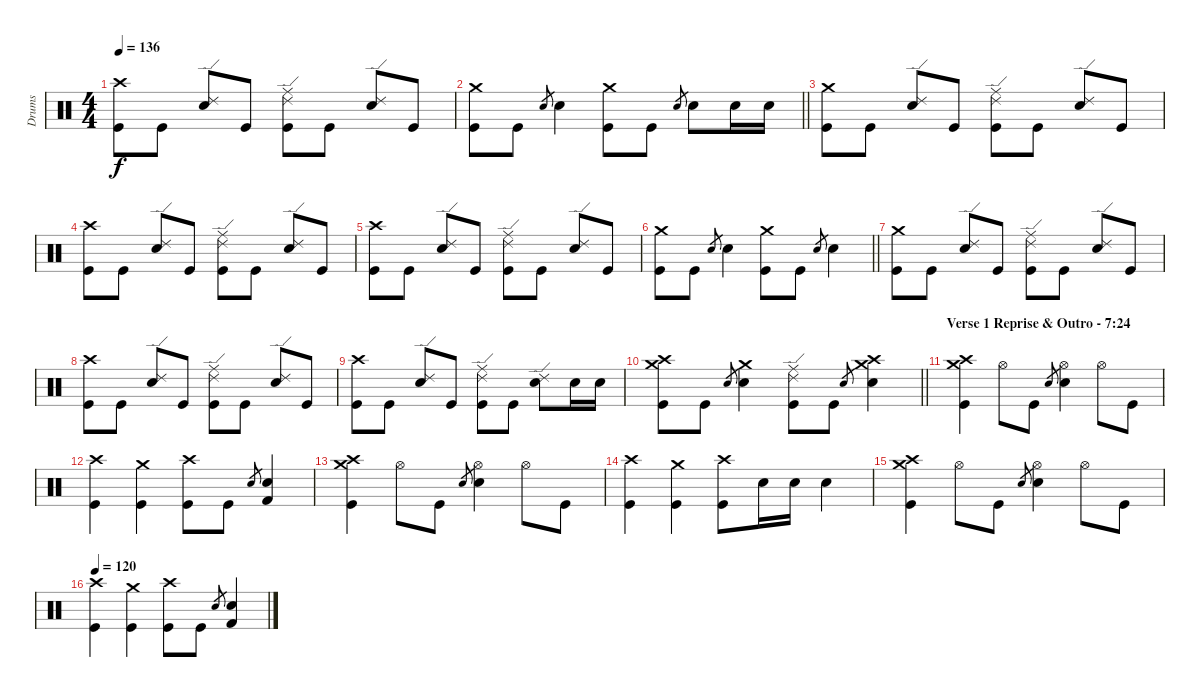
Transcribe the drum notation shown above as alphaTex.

\track ("Drums" "Drums") {instrument percussion}
\staff {score}
\articulation defaults
\ts (4 4)
\tempo 136
\clef neutral
\ks c
("Crash high (hit)" "Kick (hit)").8{dy f} "Kick (hit)".8 ("Ride (edge) 2" "Snare (hit) 2").8 "Kick (hit)".8 ("Ride (edge) 2" "Ride (middle)" "Kick (hit)").8 "Kick (hit)".8 ("Ride (edge) 2" "Snare (hit) 2").8 "Kick (hit)".8 |
\barLineRight lightlight
("Crash medium (hit)" "Kick (hit)").8 "Kick (hit)".8 "Snare (hit) 2".8{gr} "Snare (hit) 2".4 ("Crash medium (hit)" "Kick (hit)").8 "Kick (hit)".8 "Snare (hit) 2".8{gr} "Snare (hit) 2".8 "Snare (hit) 2".16 "Snare (hit) 2".16 |
("Crash medium (hit)" "Kick (hit)").8 "Kick (hit)".8 ("Ride (edge) 2" "Snare (hit) 2").8 "Kick (hit)".8 ("Ride (edge) 2" "Ride (middle)" "Kick (hit)").8 "Kick (hit)".8 ("Ride (edge) 2" "Snare (hit) 2").8 "Kick (hit)".8 |
("Crash high (hit)" "Kick (hit)").8 "Kick (hit)".8 ("Ride (edge) 2" "Snare (hit) 2").8 "Kick (hit)".8 ("Ride (edge) 2" "Ride (middle)" "Kick (hit)").8 "Kick (hit)".8 ("Ride (edge) 2" "Snare (hit) 2").8 "Kick (hit)".8 |
("Crash high (hit)" "Kick (hit)").8 "Kick (hit)".8 ("Ride (edge) 2" "Snare (hit) 2").8 "Kick (hit)".8 ("Ride (edge) 2" "Ride (middle)" "Kick (hit)").8 "Kick (hit)".8 ("Ride (edge) 2" "Snare (hit) 2").8 "Kick (hit)".8 |
\barLineRight lightlight
("Crash medium (hit)" "Kick (hit)").8 "Kick (hit)".8 "Snare (hit) 2".8{gr} "Snare (hit) 2".4 ("Crash medium (hit)" "Kick (hit)").8 "Kick (hit)".8 "Snare (hit) 2".8{gr} "Snare (hit) 2".4 |
("Crash medium (hit)" "Kick (hit)").8 "Kick (hit)".8 ("Ride (edge) 2" "Snare (hit) 2").8 "Kick (hit)".8 ("Ride (edge) 2" "Ride (middle)" "Kick (hit)").8 "Kick (hit)".8 ("Ride (edge) 2" "Snare (hit) 2").8 "Kick (hit)".8 |
("Crash high (hit)" "Kick (hit)").8 "Kick (hit)".8 ("Ride (edge) 2" "Snare (hit) 2").8 "Kick (hit)".8 ("Ride (edge) 2" "Ride (middle)" "Kick (hit)").8 "Kick (hit)".8 ("Ride (edge) 2" "Snare (hit) 2").8 "Kick (hit)".8 |
("Crash high (hit)" "Kick (hit)").8 "Kick (hit)".8 ("Ride (edge) 2" "Snare (hit) 2").8 "Kick (hit)".8 ("Ride (edge) 2" "Ride (middle)" "Kick (hit)").8 "Kick (hit)".8 ("Ride (edge) 2" "Snare (hit) 2").8 "Snare (hit) 2".16 "Snare (hit) 2".16 |
\barLineRight lightlight
("Crash medium (hit)" "Crash high (hit)" "Kick (hit)").8 "Kick (hit)".8 "Snare (hit) 2".8{gr} ("Crash medium (hit)" "Snare (hit) 2").4 ("Ride (edge) 2" "Ride (middle)" "Kick (hit)").8 "Kick (hit)".8 "Snare (hit) 2".8{gr} ("Crash medium (hit)" "Crash high (hit)" "Snare (hit) 2").4 |
\section ("" "Verse 1 Reprise & Outro - 7:24")
("Crash medium (hit)" "Crash high (hit)" "Kick (hit)").4 "Hi-Hat (open)".8 "Kick (hit)".8 "Snare (hit) 2".8{gr} ("Hi-Hat (open)" "Snare (hit) 2").4 "Hi-Hat (open)".8 "Kick (hit)".8 |
("Crash high (hit)" "Kick (hit)").4 ("Crash medium (hit)" "Kick (hit)").4 ("Crash high (hit)" "Kick (hit)").8 "Kick (hit)".8 "Snare (hit) 2".8{gr} ("Snare (hit) 2" "Kick (hit) 2").4 |
("Crash medium (hit)" "Crash high (hit)" "Kick (hit)").4 "Hi-Hat (open)".8 "Kick (hit)".8 "Snare (hit) 2".8{gr} ("Hi-Hat (open)" "Snare (hit) 2").4 "Hi-Hat (open)".8 "Kick (hit)".8 |
("Crash high (hit)" "Kick (hit)").4 ("Crash medium (hit)" "Kick (hit)").4 ("Crash high (hit)" "Kick (hit)").8 "Snare (hit) 2".16 "Snare (hit) 2".16 "Snare (hit) 2".4 |
("Crash medium (hit)" "Crash high (hit)" "Kick (hit)").4 "Hi-Hat (open)".8 "Kick (hit)".8 "Snare (hit) 2".8{gr} ("Hi-Hat (open)" "Snare (hit) 2").4 "Hi-Hat (open)".8 "Kick (hit)".8 |
\tempo 120
("Crash high (hit)" "Kick (hit)").4 ("Crash medium (hit)" "Kick (hit)").4 ("Crash high (hit)" "Kick (hit)").8 "Kick (hit)".8 "Snare (hit) 2".8{gr} ("Snare (hit) 2" "Kick (hit) 2").4
